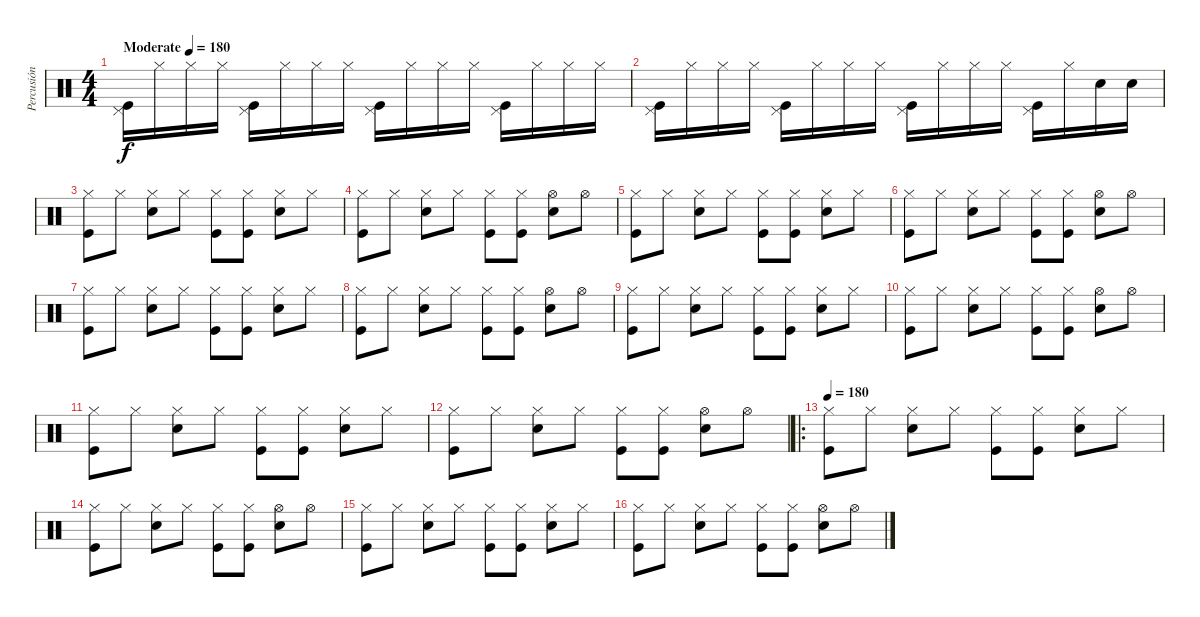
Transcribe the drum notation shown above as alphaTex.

\track ("Percusión" "Percusión") {instrument percussion}
\staff {score}
\articulation defaults
\ts (4 4)
\tempo (180 "Moderate")
\clef neutral
\ks c
("Kick (hit)" "Pedal Hi-Hat (hit)").16{dy f} "Hi-Hat (closed)".16 "Hi-Hat (closed)".16 "Hi-Hat (closed)".16 ("Kick (hit)" "Pedal Hi-Hat (hit)").16 "Hi-Hat (closed)".16 "Hi-Hat (closed)".16 "Hi-Hat (closed)".16 ("Kick (hit)" "Pedal Hi-Hat (hit)").16 "Hi-Hat (closed)".16 "Hi-Hat (closed)".16 "Hi-Hat (closed)".16 ("Kick (hit)" "Pedal Hi-Hat (hit)").16 "Hi-Hat (closed)".16 "Hi-Hat (closed)".16 "Hi-Hat (closed)".16 |
("Kick (hit)" "Pedal Hi-Hat (hit)").16 "Hi-Hat (closed)".16 "Hi-Hat (closed)".16 "Hi-Hat (closed)".16 ("Kick (hit)" "Pedal Hi-Hat (hit)").16 "Hi-Hat (closed)".16 "Hi-Hat (closed)".16 "Hi-Hat (closed)".16 ("Kick (hit)" "Pedal Hi-Hat (hit)").16 "Hi-Hat (closed)".16 "Hi-Hat (closed)".16 "Hi-Hat (closed)".16 ("Kick (hit)" "Pedal Hi-Hat (hit)").16 "Hi-Hat (closed)".16 "Snare (hit) 2".16 "Snare (hit) 2".16 |
("Kick (hit)" "Hi-Hat (closed)").8 "Hi-Hat (closed)".8 ("Snare (hit) 2" "Hi-Hat (closed)").8 "Hi-Hat (closed)".8 ("Kick (hit)" "Hi-Hat (closed)").8 ("Kick (hit)" "Hi-Hat (closed)").8 ("Snare (hit) 2" "Hi-Hat (closed)").8 "Hi-Hat (closed)".8 |
("Kick (hit)" "Hi-Hat (closed)").8 "Hi-Hat (closed)".8 ("Snare (hit) 2" "Hi-Hat (closed)").8 "Hi-Hat (closed)".8 ("Kick (hit)" "Hi-Hat (closed)").8 ("Kick (hit)" "Hi-Hat (closed)").8 ("Snare (hit) 2" "Hi-Hat (open)").8 "Hi-Hat (open)".8 |
("Kick (hit)" "Hi-Hat (closed)").8 "Hi-Hat (closed)".8 ("Snare (hit) 2" "Hi-Hat (closed)").8 "Hi-Hat (closed)".8 ("Kick (hit)" "Hi-Hat (closed)").8 ("Kick (hit)" "Hi-Hat (closed)").8 ("Snare (hit) 2" "Hi-Hat (closed)").8 "Hi-Hat (closed)".8 |
("Kick (hit)" "Hi-Hat (closed)").8 "Hi-Hat (closed)".8 ("Snare (hit) 2" "Hi-Hat (closed)").8 "Hi-Hat (closed)".8 ("Kick (hit)" "Hi-Hat (closed)").8 ("Kick (hit)" "Hi-Hat (closed)").8 ("Snare (hit) 2" "Hi-Hat (open)").8 "Hi-Hat (open)".8 |
("Kick (hit)" "Hi-Hat (closed)").8 "Hi-Hat (closed)".8 ("Snare (hit) 2" "Hi-Hat (closed)").8 "Hi-Hat (closed)".8 ("Kick (hit)" "Hi-Hat (closed)").8 ("Kick (hit)" "Hi-Hat (closed)").8 ("Snare (hit) 2" "Hi-Hat (closed)").8 "Hi-Hat (closed)".8 |
("Kick (hit)" "Hi-Hat (closed)").8 "Hi-Hat (closed)".8 ("Snare (hit) 2" "Hi-Hat (closed)").8 "Hi-Hat (closed)".8 ("Kick (hit)" "Hi-Hat (closed)").8 ("Kick (hit)" "Hi-Hat (closed)").8 ("Snare (hit) 2" "Hi-Hat (open)").8 "Hi-Hat (open)".8 |
("Kick (hit)" "Hi-Hat (closed)").8 "Hi-Hat (closed)".8 ("Snare (hit) 2" "Hi-Hat (closed)").8 "Hi-Hat (closed)".8 ("Kick (hit)" "Hi-Hat (closed)").8 ("Kick (hit)" "Hi-Hat (closed)").8 ("Snare (hit) 2" "Hi-Hat (closed)").8 "Hi-Hat (closed)".8 |
("Kick (hit)" "Hi-Hat (closed)").8 "Hi-Hat (closed)".8 ("Snare (hit) 2" "Hi-Hat (closed)").8 "Hi-Hat (closed)".8 ("Kick (hit)" "Hi-Hat (closed)").8 ("Kick (hit)" "Hi-Hat (closed)").8 ("Snare (hit) 2" "Hi-Hat (open)").8 "Hi-Hat (open)".8 |
("Kick (hit)" "Hi-Hat (closed)").8 "Hi-Hat (closed)".8 ("Snare (hit) 2" "Hi-Hat (closed)").8 "Hi-Hat (closed)".8 ("Kick (hit)" "Hi-Hat (closed)").8 ("Kick (hit)" "Hi-Hat (closed)").8 ("Snare (hit) 2" "Hi-Hat (closed)").8 "Hi-Hat (closed)".8 |
("Kick (hit)" "Hi-Hat (closed)").8 "Hi-Hat (closed)".8 ("Snare (hit) 2" "Hi-Hat (closed)").8 "Hi-Hat (closed)".8 ("Kick (hit)" "Hi-Hat (closed)").8 ("Kick (hit)" "Hi-Hat (closed)").8 ("Snare (hit) 2" "Hi-Hat (open)").8 "Hi-Hat (open)".8 |
\ro
\tempo 180
("Kick (hit)" "Hi-Hat (closed)").8 "Hi-Hat (closed)".8 ("Snare (hit) 2" "Hi-Hat (closed)").8 "Hi-Hat (closed)".8 ("Kick (hit)" "Hi-Hat (closed)").8 ("Kick (hit)" "Hi-Hat (closed)").8 ("Snare (hit) 2" "Hi-Hat (closed)").8 "Hi-Hat (closed)".8 |
("Kick (hit)" "Hi-Hat (closed)").8 "Hi-Hat (closed)".8 ("Snare (hit) 2" "Hi-Hat (closed)").8 "Hi-Hat (closed)".8 ("Kick (hit)" "Hi-Hat (closed)").8 ("Kick (hit)" "Hi-Hat (closed)").8 ("Snare (hit) 2" "Hi-Hat (open)").8 "Hi-Hat (open)".8 |
("Kick (hit)" "Hi-Hat (closed)").8 "Hi-Hat (closed)".8 ("Snare (hit) 2" "Hi-Hat (closed)").8 "Hi-Hat (closed)".8 ("Kick (hit)" "Hi-Hat (closed)").8 ("Kick (hit)" "Hi-Hat (closed)").8 ("Snare (hit) 2" "Hi-Hat (closed)").8 "Hi-Hat (closed)".8 |
("Kick (hit)" "Hi-Hat (closed)").8 "Hi-Hat (closed)".8 ("Snare (hit) 2" "Hi-Hat (closed)").8 "Hi-Hat (closed)".8 ("Kick (hit)" "Hi-Hat (closed)").8 ("Kick (hit)" "Hi-Hat (closed)").8 ("Snare (hit) 2" "Hi-Hat (open)").8 "Hi-Hat (open)".8
